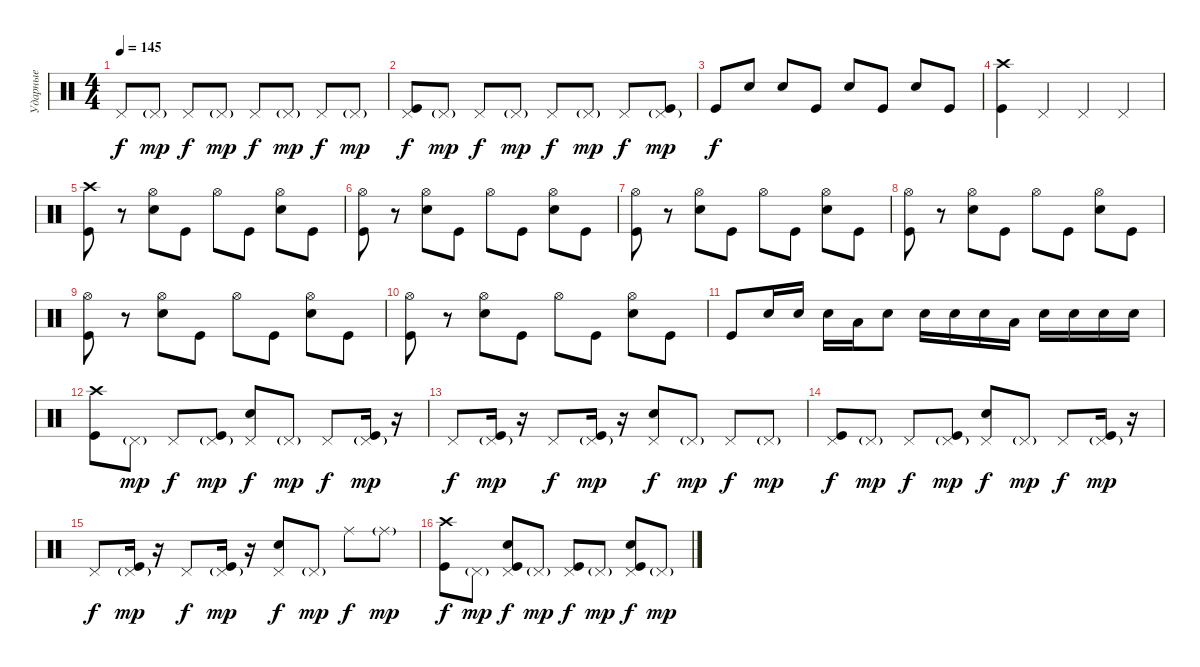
\track ("Ударные" "Ударные") {instrument percussion}
\staff {score}
\articulation defaults
\ts (4 4)
\tempo 145
\clef neutral
\ks c "Pedal Hi-Hat (hit)".8{dy f} "Pedal Hi-Hat (hit)"{g}.8{dy mp} "Pedal Hi-Hat (hit)".8{dy f} "Pedal Hi-Hat (hit)"{g}.8{dy mp} "Pedal Hi-Hat (hit)".8{dy f} "Pedal Hi-Hat (hit)"{g}.8{dy mp} "Pedal Hi-Hat (hit)".8{dy f} "Pedal Hi-Hat (hit)"{g}.8{dy mp}
|
("Pedal Hi-Hat (hit)" "Kick (hit)").8{dy f volume 13 balance 8} "Pedal Hi-Hat (hit)"{g}.8{dy mp} "Pedal Hi-Hat (hit)".8{dy f} "Pedal Hi-Hat (hit)"{g}.8{dy mp} "Pedal Hi-Hat (hit)".8{dy f} "Pedal Hi-Hat (hit)"{g}.8{dy mp} "Pedal Hi-Hat (hit)".8{dy f} ("Pedal Hi-Hat (hit)"{g} "Kick (hit)").8{dy mp} |
"Kick (hit)".8{dy f} "Electric Snare (hit)".8 "Electric Snare (hit)".8 "Kick (hit)".8 "Electric Snare (hit)".8 "Kick (hit)".8 "Electric Snare (hit)".8 "Kick (hit)".8 |
("Crash high (hit)" "Kick (hit)").4 "Pedal Hi-Hat (hit)".4 "Pedal Hi-Hat (hit)".4 "Pedal Hi-Hat (hit)".4 |
("Crash high (hit)" "Kick (hit)").8 r.8 ("Hi-Hat (open)" "Electric Snare (hit)").8 "Kick (hit)".8 "Hi-Hat (open)".8 "Kick (hit)".8 ("Hi-Hat (open)" "Electric Snare (hit)").8 "Kick (hit)".8 |
("Hi-Hat (open)" "Kick (hit)").8 r.8 ("Hi-Hat (open)" "Electric Snare (hit)").8 "Kick (hit)".8 "Hi-Hat (open)".8 "Kick (hit)".8 ("Hi-Hat (open)" "Electric Snare (hit)").8 "Kick (hit)".8 |
("Hi-Hat (open)" "Kick (hit)").8 r.8 ("Hi-Hat (open)" "Electric Snare (hit)").8 "Kick (hit)".8 "Hi-Hat (open)".8 "Kick (hit)".8 ("Hi-Hat (open)" "Electric Snare (hit)").8 "Kick (hit)".8 |
("Hi-Hat (open)" "Kick (hit)").8 r.8 ("Hi-Hat (open)" "Electric Snare (hit)").8 "Kick (hit)".8 "Hi-Hat (open)".8 "Kick (hit)".8 ("Hi-Hat (open)" "Electric Snare (hit)").8 "Kick (hit)".8 |
("Hi-Hat (open)" "Kick (hit)").8 r.8 ("Hi-Hat (open)" "Electric Snare (hit)").8 "Kick (hit)".8 "Hi-Hat (open)".8 "Kick (hit)".8 ("Hi-Hat (open)" "Electric Snare (hit)").8 "Kick (hit)".8 |
("Hi-Hat (open)" "Kick (hit)").8 r.8 ("Hi-Hat (open)" "Electric Snare (hit)").8 "Kick (hit)".8 "Hi-Hat (open)".8 "Kick (hit)".8 ("Hi-Hat (open)" "Electric Snare (hit)").8 "Kick (hit)".8 |
"Kick (hit)".8 "Electric Snare (hit)".16 "Electric Snare (hit)".16 "Electric Snare (hit)".16 "Low Tom (hit)".16 "Electric Snare (hit)".8 "Electric Snare (hit)".16 "Electric Snare (hit)".16 "Electric Snare (hit)".16 "Low Tom (hit)".16 "Electric Snare (hit)".16 "Electric Snare (hit)".16 "Electric Snare (hit)".16 "Electric Snare (hit)".16 |
("Crash high (hit)" "Kick (hit)").8 "Pedal Hi-Hat (hit)"{g}.8{dy mp} "Pedal Hi-Hat (hit)".8{dy f} ("Pedal Hi-Hat (hit)"{g} "Kick (hit)").8{dy mp} ("Pedal Hi-Hat (hit)" "Electric Snare (hit)").8{dy f} "Pedal Hi-Hat (hit)"{g}.8{dy mp} "Pedal Hi-Hat (hit)".8{dy f} ("Pedal Hi-Hat (hit)"{g} "Kick (hit)").16{dy mp} r.16 |
"Pedal Hi-Hat (hit)".8{dy f} ("Pedal Hi-Hat (hit)"{g} "Kick (hit)").16{dy mp} r.16 "Pedal Hi-Hat (hit)".8{dy f} ("Pedal Hi-Hat (hit)"{g} "Kick (hit)").16{dy mp} r.16 ("Pedal Hi-Hat (hit)" "Electric Snare (hit)").8{dy f} "Pedal Hi-Hat (hit)"{g}.8{dy mp} "Pedal Hi-Hat (hit)".8{dy f} "Pedal Hi-Hat (hit)"{g}.8{dy mp} |
("Pedal Hi-Hat (hit)" "Kick (hit)").8{dy f} "Pedal Hi-Hat (hit)"{g}.8{dy mp} "Pedal Hi-Hat (hit)".8{dy f} ("Pedal Hi-Hat (hit)"{g} "Kick (hit)").8{dy mp} ("Pedal Hi-Hat (hit)" "Electric Snare (hit)").8{dy f} "Pedal Hi-Hat (hit)"{g}.8{dy mp} "Pedal Hi-Hat (hit)".8{dy f} ("Pedal Hi-Hat (hit)"{g} "Kick (hit)").16{dy mp} r.16 |
"Pedal Hi-Hat (hit)".8{dy f} ("Pedal Hi-Hat (hit)"{g} "Kick (hit)").16{dy mp} r.16 "Pedal Hi-Hat (hit)".8{dy f} ("Pedal Hi-Hat (hit)"{g} "Kick (hit)").16{dy mp} r.16 ("Pedal Hi-Hat (hit)" "Electric Snare (hit)").8{dy f} "Pedal Hi-Hat (hit)"{g}.8{dy mp} "Ride (middle)".8{dy f} "Ride (middle)"{g}.8{dy mp} |
("Crash high (hit)" "Kick (hit)").8{dy f} "Pedal Hi-Hat (hit)"{g}.8{dy mp} ("Pedal Hi-Hat (hit)" "Electric Snare (hit)" "Kick (hit)").8{dy f} "Pedal Hi-Hat (hit)"{g}.8{dy mp} ("Pedal Hi-Hat (hit)" "Kick (hit)").8{dy f} "Pedal Hi-Hat (hit)"{g}.8{dy mp} ("Pedal Hi-Hat (hit)" "Electric Snare (hit)" "Kick (hit)").8{dy f} "Pedal Hi-Hat (hit)"{g}.8{dy mp}
